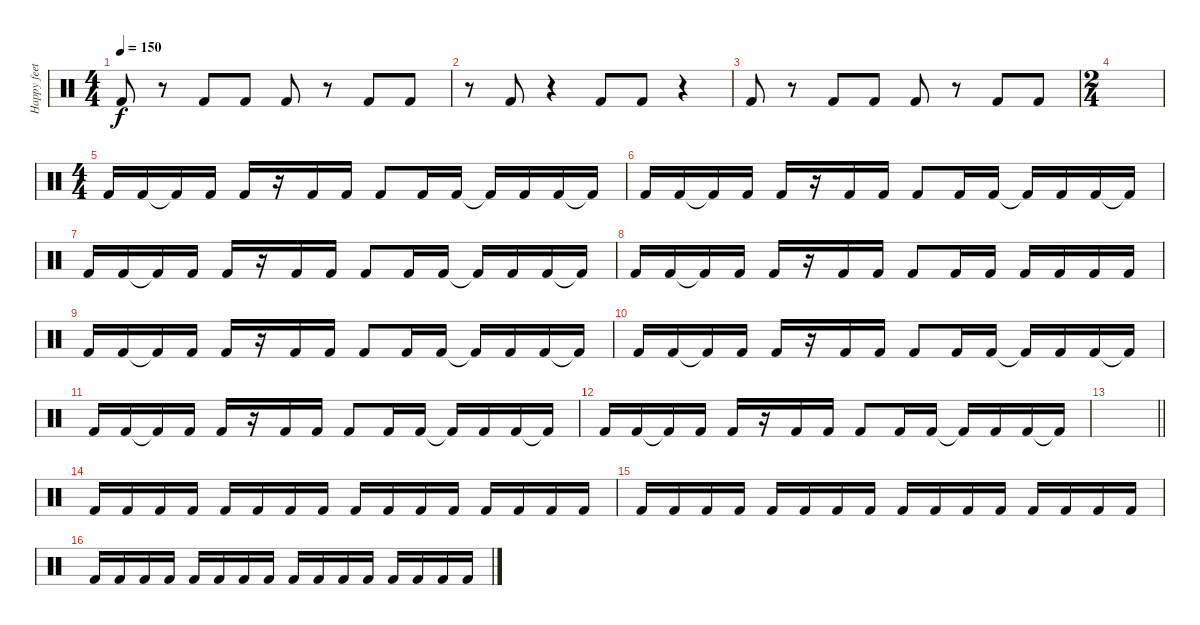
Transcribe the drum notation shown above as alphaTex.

\track ("Happy feet" "Happy feet") {instrument percussion}
\staff {score}
\articulation defaults
\ts (4 4)
\tempo 150
\clef neutral
\ks c "Kick (hit) 2".8{dy f}
r.8 "Kick (hit) 2".8 "Kick (hit) 2".8 "Kick (hit) 2".8 r.8 "Kick (hit) 2".8 "Kick (hit) 2".8 |
r.8 "Kick (hit) 2".8 r.4 "Kick (hit) 2".8 "Kick (hit) 2".8 r.4 |
"Kick (hit) 2".8 r.8 "Kick (hit) 2".8 "Kick (hit) 2".8 "Kick (hit) 2".8 r.8 "Kick (hit) 2".8 "Kick (hit) 2".8 |
\ts (2 4)
|
\ts (4 4)
"Kick (hit) 2".16 "Kick (hit) 2".16 "Kick (hit) 2"{t}.16 "Kick (hit) 2".16 "Kick (hit) 2".16 r.16 "Kick (hit) 2".16 "Kick (hit) 2".16 "Kick (hit) 2".8 "Kick (hit) 2".16 "Kick (hit) 2".16 "Kick (hit) 2"{t}.16 "Kick (hit) 2".16 "Kick (hit) 2".16 "Kick (hit) 2"{t}.16 |
"Kick (hit) 2".16 "Kick (hit) 2".16 "Kick (hit) 2"{t}.16 "Kick (hit) 2".16 "Kick (hit) 2".16 r.16 "Kick (hit) 2".16 "Kick (hit) 2".16 "Kick (hit) 2".8 "Kick (hit) 2".16 "Kick (hit) 2".16 "Kick (hit) 2"{t}.16 "Kick (hit) 2".16 "Kick (hit) 2".16 "Kick (hit) 2"{t}.16 |
"Kick (hit) 2".16 "Kick (hit) 2".16 "Kick (hit) 2"{t}.16 "Kick (hit) 2".16 "Kick (hit) 2".16 r.16 "Kick (hit) 2".16 "Kick (hit) 2".16 "Kick (hit) 2".8 "Kick (hit) 2".16 "Kick (hit) 2".16 "Kick (hit) 2"{t}.16 "Kick (hit) 2".16 "Kick (hit) 2".16 "Kick (hit) 2"{t}.16 |
"Kick (hit) 2".16 "Kick (hit) 2".16 "Kick (hit) 2"{t}.16 "Kick (hit) 2".16 "Kick (hit) 2".16 r.16 "Kick (hit) 2".16 "Kick (hit) 2".16 "Kick (hit) 2".8 "Kick (hit) 2".16 "Kick (hit) 2".16 "Kick (hit) 2".16 "Kick (hit) 2".16 "Kick (hit) 2".16 "Kick (hit) 2".16 |
"Kick (hit) 2".16 "Kick (hit) 2".16 "Kick (hit) 2"{t}.16 "Kick (hit) 2".16 "Kick (hit) 2".16 r.16 "Kick (hit) 2".16 "Kick (hit) 2".16 "Kick (hit) 2".8 "Kick (hit) 2".16 "Kick (hit) 2".16 "Kick (hit) 2"{t}.16 "Kick (hit) 2".16 "Kick (hit) 2".16 "Kick (hit) 2"{t}.16 |
"Kick (hit) 2".16 "Kick (hit) 2".16 "Kick (hit) 2"{t}.16 "Kick (hit) 2".16 "Kick (hit) 2".16 r.16 "Kick (hit) 2".16 "Kick (hit) 2".16 "Kick (hit) 2".8 "Kick (hit) 2".16 "Kick (hit) 2".16 "Kick (hit) 2"{t}.16 "Kick (hit) 2".16 "Kick (hit) 2".16 "Kick (hit) 2"{t}.16 |
"Kick (hit) 2".16 "Kick (hit) 2".16 "Kick (hit) 2"{t}.16 "Kick (hit) 2".16 "Kick (hit) 2".16 r.16 "Kick (hit) 2".16 "Kick (hit) 2".16 "Kick (hit) 2".8 "Kick (hit) 2".16 "Kick (hit) 2".16 "Kick (hit) 2"{t}.16 "Kick (hit) 2".16 "Kick (hit) 2".16 "Kick (hit) 2"{t}.16 |
"Kick (hit) 2".16 "Kick (hit) 2".16 "Kick (hit) 2"{t}.16 "Kick (hit) 2".16 "Kick (hit) 2".16 r.16 "Kick (hit) 2".16 "Kick (hit) 2".16 "Kick (hit) 2".8 "Kick (hit) 2".16 "Kick (hit) 2".16 "Kick (hit) 2"{t}.16 "Kick (hit) 2".16 "Kick (hit) 2".16 "Kick (hit) 2"{t}.16 |
\barLineRight lightlight
|
"Kick (hit) 2".16 "Kick (hit) 2".16 "Kick (hit) 2".16 "Kick (hit) 2".16 "Kick (hit) 2".16 "Kick (hit) 2".16 "Kick (hit) 2".16 "Kick (hit) 2".16 "Kick (hit) 2".16 "Kick (hit) 2".16 "Kick (hit) 2".16 "Kick (hit) 2".16 "Kick (hit) 2".16 "Kick (hit) 2".16 "Kick (hit) 2".16 "Kick (hit) 2".16 |
"Kick (hit) 2".16 "Kick (hit) 2".16 "Kick (hit) 2".16 "Kick (hit) 2".16 "Kick (hit) 2".16 "Kick (hit) 2".16 "Kick (hit) 2".16 "Kick (hit) 2".16 "Kick (hit) 2".16 "Kick (hit) 2".16 "Kick (hit) 2".16 "Kick (hit) 2".16 "Kick (hit) 2".16 "Kick (hit) 2".16 "Kick (hit) 2".16 "Kick (hit) 2".16 |
"Kick (hit) 2".16 "Kick (hit) 2".16 "Kick (hit) 2".16 "Kick (hit) 2".16 "Kick (hit) 2".16 "Kick (hit) 2".16 "Kick (hit) 2".16 "Kick (hit) 2".16 "Kick (hit) 2".16 "Kick (hit) 2".16 "Kick (hit) 2".16 "Kick (hit) 2".16 "Kick (hit) 2".16 "Kick (hit) 2".16 "Kick (hit) 2".16 "Kick (hit) 2".16
